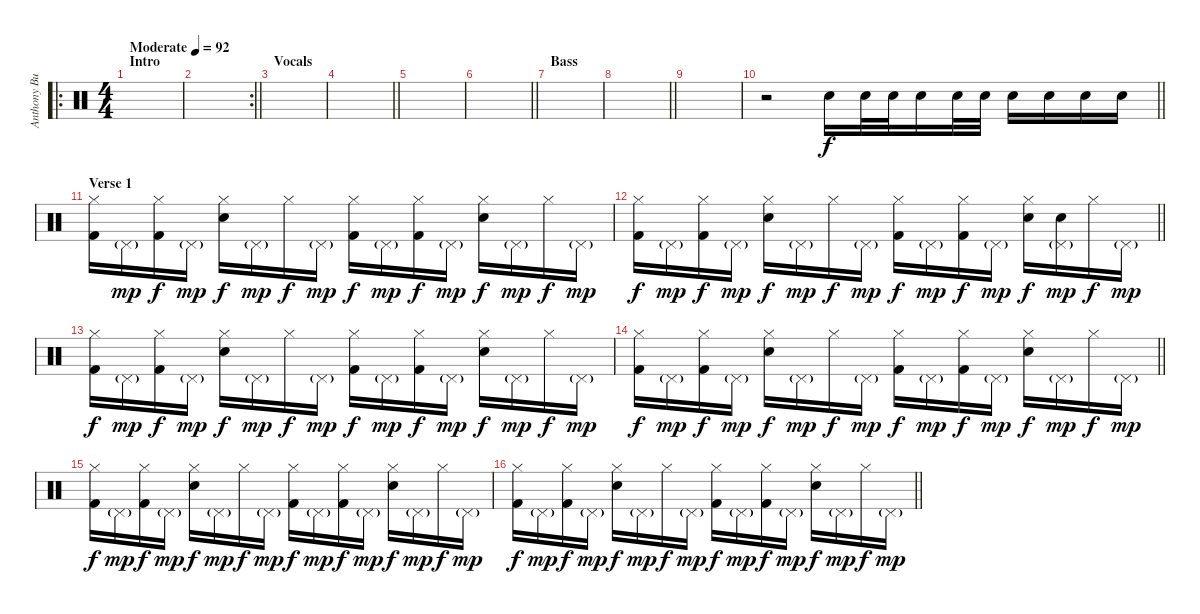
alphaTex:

\track ("Anthony Burulcich" "Anthony Bu") {instrument percussion}
\staff {score}
\articulation defaults
\ro
\ts (4 4)
\section ("" "Intro")
\tempo (92 "Moderate")
\clef neutral
\ks c
|
\rc 2
\barLineRight lightlight
|
\section ("" "Vocals")
|
\barLineRight lightlight
|
|
\barLineRight lightlight
|
\section ("" "Bass")
|
\barLineRight lightlight
|
|
\barLineRight lightlight
r.2 "Snare (hit) 2".16 "Snare (hit) 2".32 "Snare (hit) 2".32 "Snare (hit) 2".16 "Snare (hit) 2".32 "Snare (hit) 2".32 "Snare (hit) 2".16 "Snare (hit) 2".16 "Snare (hit) 2".16 "Snare (hit) 2".16 |
\section ("" "Verse 1")
("Hi-Hat (closed)" "Kick (hit) 2").16 "Pedal Hi-Hat (hit)"{g}.16{dy mp} ("Hi-Hat (closed)" "Kick (hit) 2").16{dy f} "Pedal Hi-Hat (hit)"{g}.16{dy mp} ("Hi-Hat (closed)" "Snare (hit) 2").16{dy f} "Pedal Hi-Hat (hit)"{g}.16{dy mp} "Hi-Hat (closed)".16{dy f} "Pedal Hi-Hat (hit)"{g}.16{dy mp} ("Hi-Hat (closed)" "Kick (hit) 2").16{dy f} "Pedal Hi-Hat (hit)"{g}.16{dy mp} ("Hi-Hat (closed)" "Kick (hit) 2").16{dy f} "Pedal Hi-Hat (hit)"{g}.16{dy mp} ("Hi-Hat (closed)" "Snare (hit) 2").16{dy f} "Pedal Hi-Hat (hit)"{g}.16{dy mp} "Hi-Hat (closed)".16{dy f} "Pedal Hi-Hat (hit)"{g}.16{dy mp} |
\barLineRight lightlight
("Hi-Hat (closed)" "Kick (hit) 2").16{dy f} "Pedal Hi-Hat (hit)"{g}.16{dy mp} ("Hi-Hat (closed)" "Kick (hit) 2").16{dy f} "Pedal Hi-Hat (hit)"{g}.16{dy mp} ("Hi-Hat (closed)" "Snare (hit) 2").16{dy f} "Pedal Hi-Hat (hit)"{g}.16{dy mp} "Hi-Hat (closed)".16{dy f} "Pedal Hi-Hat (hit)"{g}.16{dy mp} ("Hi-Hat (closed)" "Kick (hit) 2").16{dy f} "Pedal Hi-Hat (hit)"{g}.16{dy mp} ("Hi-Hat (closed)" "Kick (hit) 2").16{dy f} "Pedal Hi-Hat (hit)"{g}.16{dy mp} ("Hi-Hat (closed)" "Snare (hit) 2").16{dy f} ("Pedal Hi-Hat (hit)"{g} "Snare (hit) 2").16{dy mp} "Hi-Hat (closed)".16{dy f} "Pedal Hi-Hat (hit)"{g}.16{dy mp} |
("Hi-Hat (closed)" "Kick (hit) 2").16{dy f} "Pedal Hi-Hat (hit)"{g}.16{dy mp} ("Hi-Hat (closed)" "Kick (hit) 2").16{dy f} "Pedal Hi-Hat (hit)"{g}.16{dy mp} ("Hi-Hat (closed)" "Snare (hit) 2").16{dy f} "Pedal Hi-Hat (hit)"{g}.16{dy mp} "Hi-Hat (closed)".16{dy f} "Pedal Hi-Hat (hit)"{g}.16{dy mp} ("Hi-Hat (closed)" "Kick (hit) 2").16{dy f} "Pedal Hi-Hat (hit)"{g}.16{dy mp} ("Hi-Hat (closed)" "Kick (hit) 2").16{dy f} "Pedal Hi-Hat (hit)"{g}.16{dy mp} ("Hi-Hat (closed)" "Snare (hit) 2").16{dy f} "Pedal Hi-Hat (hit)"{g}.16{dy mp} "Hi-Hat (closed)".16{dy f} "Pedal Hi-Hat (hit)"{g}.16{dy mp} |
\barLineRight lightlight
("Hi-Hat (closed)" "Kick (hit) 2").16{dy f} "Pedal Hi-Hat (hit)"{g}.16{dy mp} ("Hi-Hat (closed)" "Kick (hit) 2").16{dy f} "Pedal Hi-Hat (hit)"{g}.16{dy mp} ("Hi-Hat (closed)" "Snare (hit) 2").16{dy f} "Pedal Hi-Hat (hit)"{g}.16{dy mp} "Hi-Hat (closed)".16{dy f} "Pedal Hi-Hat (hit)"{g}.16{dy mp} ("Hi-Hat (closed)" "Kick (hit) 2").16{dy f} "Pedal Hi-Hat (hit)"{g}.16{dy mp} ("Hi-Hat (closed)" "Kick (hit) 2").16{dy f} "Pedal Hi-Hat (hit)"{g}.16{dy mp} ("Hi-Hat (closed)" "Snare (hit) 2").16{dy f} "Pedal Hi-Hat (hit)"{g}.16{dy mp} "Hi-Hat (closed)".16{dy f} "Pedal Hi-Hat (hit)"{g}.16{dy mp} |
("Hi-Hat (closed)" "Kick (hit) 2").16{dy f} "Pedal Hi-Hat (hit)"{g}.16{dy mp} ("Hi-Hat (closed)" "Kick (hit) 2").16{dy f} "Pedal Hi-Hat (hit)"{g}.16{dy mp} ("Hi-Hat (closed)" "Snare (hit) 2").16{dy f} "Pedal Hi-Hat (hit)"{g}.16{dy mp} "Hi-Hat (closed)".16{dy f} "Pedal Hi-Hat (hit)"{g}.16{dy mp} ("Hi-Hat (closed)" "Kick (hit) 2").16{dy f} "Pedal Hi-Hat (hit)"{g}.16{dy mp} ("Hi-Hat (closed)" "Kick (hit) 2").16{dy f} "Pedal Hi-Hat (hit)"{g}.16{dy mp} ("Hi-Hat (closed)" "Snare (hit) 2").16{dy f} "Pedal Hi-Hat (hit)"{g}.16{dy mp} "Hi-Hat (closed)".16{dy f} "Pedal Hi-Hat (hit)"{g}.16{dy mp} |
\barLineRight lightlight
("Hi-Hat (closed)" "Kick (hit) 2").16{dy f} "Pedal Hi-Hat (hit)"{g}.16{dy mp} ("Hi-Hat (closed)" "Kick (hit) 2").16{dy f} "Pedal Hi-Hat (hit)"{g}.16{dy mp} ("Hi-Hat (closed)" "Snare (hit) 2").16{dy f} "Pedal Hi-Hat (hit)"{g}.16{dy mp} "Hi-Hat (closed)".16{dy f} "Pedal Hi-Hat (hit)"{g}.16{dy mp} ("Hi-Hat (closed)" "Kick (hit) 2").16{dy f} "Pedal Hi-Hat (hit)"{g}.16{dy mp} ("Hi-Hat (closed)" "Kick (hit) 2").16{dy f} "Pedal Hi-Hat (hit)"{g}.16{dy mp} ("Hi-Hat (closed)" "Snare (hit) 2").16{dy f} "Pedal Hi-Hat (hit)"{g}.16{dy mp} "Hi-Hat (closed)".16{dy f} "Pedal Hi-Hat (hit)"{g}.16{dy mp}
